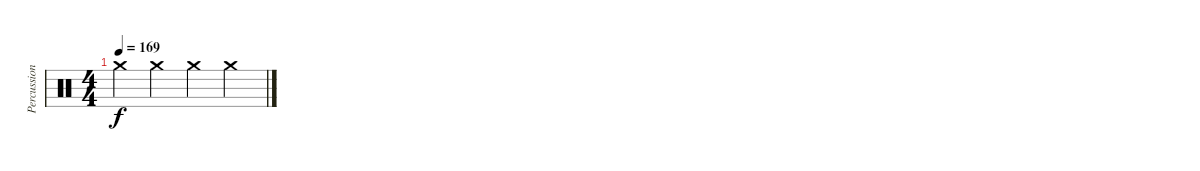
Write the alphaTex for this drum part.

\track ("Percussion" "Percussion") {instrument percussion}
\staff {score}
\articulation defaults
\ts (4 4)
\tempo 169
\clef neutral
\ks c "Crash medium (hit)".4{dy f} "Crash medium (hit)".4 "Crash medium (hit)".4 "Crash medium (hit)".4
